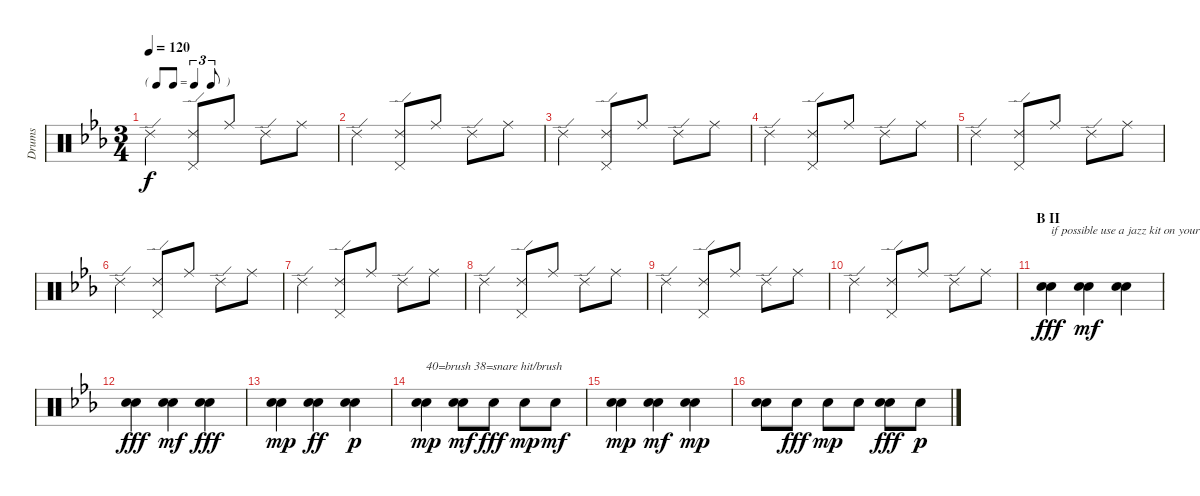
\track ("Drums" "Drums") {instrument percussion}
\staff {score}
\articulation defaults
\ts (3 4)
\tf triplet8th
\tempo 120
\clef neutral
\ks cminor "Ride (edge) 2".4{dy f}
("Ride (edge) 2" "Pedal Hi-Hat (hit)").8 "Ride (middle)".8 "Ride (edge) 2".8 "Ride (middle)".8 |
"Ride (edge) 2".4 ("Ride (edge) 2" "Pedal Hi-Hat (hit)").8 "Ride (middle)".8 "Ride (edge) 2".8 "Ride (middle)".8 |
"Ride (edge) 2".4 ("Ride (edge) 2" "Pedal Hi-Hat (hit)").8 "Ride (middle)".8 "Ride (edge) 2".8 "Ride (middle)".8 |
"Ride (edge) 2".4 ("Ride (edge) 2" "Pedal Hi-Hat (hit)").8 "Ride (middle)".8 "Ride (edge) 2".8 "Ride (middle)".8 |
"Ride (edge) 2".4 ("Ride (edge) 2" "Pedal Hi-Hat (hit)").8 "Ride (middle)".8 "Ride (edge) 2".8 "Ride (middle)".8 |
"Ride (edge) 2".4 ("Ride (edge) 2" "Pedal Hi-Hat (hit)").8 "Ride (middle)".8 "Ride (edge) 2".8 "Ride (middle)".8 |
"Ride (edge) 2".4 ("Ride (edge) 2" "Pedal Hi-Hat (hit)").8 "Ride (middle)".8 "Ride (edge) 2".8 "Ride (middle)".8 |
"Ride (edge) 2".4 ("Ride (edge) 2" "Pedal Hi-Hat (hit)").8 "Ride (middle)".8 "Ride (edge) 2".8 "Ride (middle)".8 |
"Ride (edge) 2".4 ("Ride (edge) 2" "Pedal Hi-Hat (hit)").8 "Ride (middle)".8 "Ride (edge) 2".8 "Ride (middle)".8 |
"Ride (edge) 2".4 ("Ride (edge) 2" "Pedal Hi-Hat (hit)").8 "Ride (middle)".8 "Ride (edge) 2".8 "Ride (middle)".8 |
\section ("" "B II")
("Electric Snare (hit)" "Snare (hit) 2").4{txt "if possible use a jazz kit on your soundcard" dy fff} ("Electric Snare (hit)" "Snare (hit) 2").4{dy mf} ("Electric Snare (hit)" "Snare (hit) 2").4 |
("Electric Snare (hit)" "Snare (hit) 2").4{dy fff} ("Electric Snare (hit)" "Snare (hit) 2").4{dy mf} ("Electric Snare (hit)" "Snare (hit) 2").4{dy fff} |
("Electric Snare (hit)" "Snare (hit) 2").4{dy mp} ("Electric Snare (hit)" "Snare (hit) 2").4{dy ff} ("Electric Snare (hit)" "Snare (hit) 2").4{dy p} |
("Electric Snare (hit)" "Snare (hit) 2").4{txt "40=brush 38=snare hit/brush" dy mp} ("Electric Snare (hit)" "Snare (hit) 2").8{dy mf} "Snare (hit) 2".8{dy fff} "Electric Snare (hit)".8{dy mp} "Snare (hit) 2".8{dy mf} |
("Electric Snare (hit)" "Snare (hit) 2").4{dy mp} ("Electric Snare (hit)" "Snare (hit) 2").4{dy mf} ("Electric Snare (hit)" "Snare (hit) 2").4{dy mp} |
("Electric Snare (hit)" "Snare (hit) 2").8 "Snare (hit) 2".8{dy fff} "Electric Snare (hit)".8{dy mp} "Snare (hit) 2".8 ("Electric Snare (hit)" "Snare (hit) 2").8{dy fff} "Snare (hit) 2".8{dy p}
